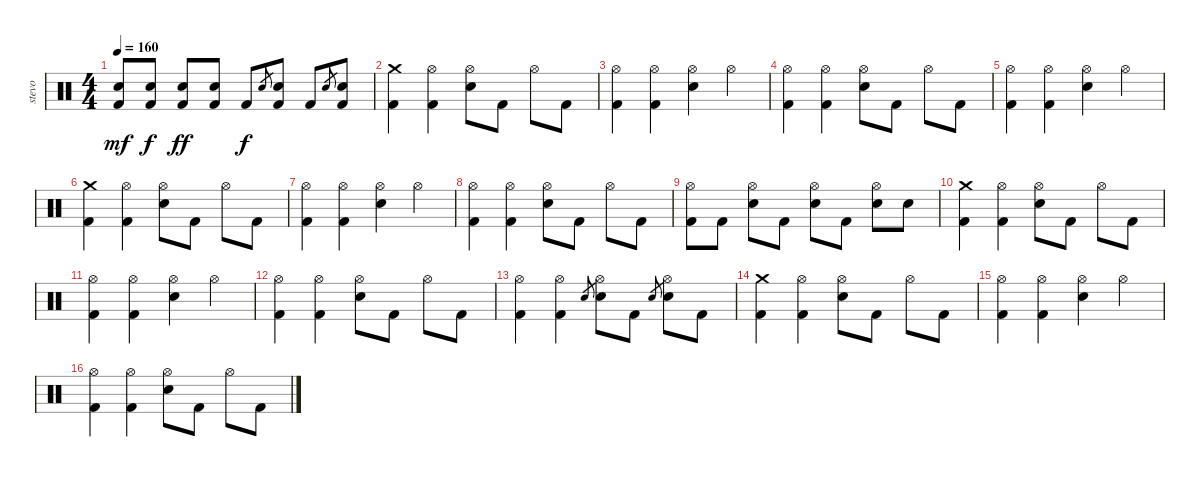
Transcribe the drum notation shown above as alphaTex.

\track ("stevo" "stevo") {instrument percussion}
\staff {score}
\articulation defaults
\ts (4 4)
\tempo 160
\clef neutral
\ks c
("Electric Snare (hit)" "Kick (hit) 2").8{dy mf} ("Electric Snare (hit)" "Kick (hit) 2").8{dy f} ("Electric Snare (hit)" "Kick (hit) 2").8{dy ff} ("Electric Snare (hit)" "Kick (hit) 2").8 "Kick (hit) 2".8{dy f} "Electric Snare (hit)".8{gr} ("Electric Snare (hit)" "Kick (hit) 2").8 "Kick (hit) 2".8 "Electric Snare (hit)".8{gr} ("Electric Snare (hit)" "Kick (hit) 2").8 |
("Crash medium (hit)" "Kick (hit) 2").4 ("Hi-Hat (open)" "Kick (hit) 2").4 ("Electric Snare (hit)" "Hi-Hat (open)").8 "Kick (hit) 2".8 "Hi-Hat (open)".8 "Kick (hit) 2".8 |
("Hi-Hat (open)" "Kick (hit) 2").4 ("Hi-Hat (open)" "Kick (hit) 2").4 ("Electric Snare (hit)" "Hi-Hat (open)").4 "Hi-Hat (open)".4 |
("Hi-Hat (open)" "Kick (hit) 2").4 ("Hi-Hat (open)" "Kick (hit) 2").4 ("Electric Snare (hit)" "Hi-Hat (open)").8 "Kick (hit) 2".8 "Hi-Hat (open)".8 "Kick (hit) 2".8 |
("Hi-Hat (open)" "Kick (hit) 2").4 ("Hi-Hat (open)" "Kick (hit) 2").4 ("Electric Snare (hit)" "Hi-Hat (open)").4 "Hi-Hat (open)".4 |
("Crash medium (hit)" "Kick (hit) 2").4 ("Hi-Hat (open)" "Kick (hit) 2").4 ("Electric Snare (hit)" "Hi-Hat (open)").8 "Kick (hit) 2".8 "Hi-Hat (open)".8 "Kick (hit) 2".8 |
("Hi-Hat (open)" "Kick (hit) 2").4 ("Hi-Hat (open)" "Kick (hit) 2").4 ("Electric Snare (hit)" "Hi-Hat (open)").4 "Hi-Hat (open)".4 |
("Hi-Hat (open)" "Kick (hit) 2").4 ("Hi-Hat (open)" "Kick (hit) 2").4 ("Electric Snare (hit)" "Hi-Hat (open)").8 "Kick (hit) 2".8 "Hi-Hat (open)".8 "Kick (hit) 2".8 |
("Hi-Hat (open)" "Kick (hit) 2").8 "Kick (hit) 2".8 ("Hi-Hat (open)" "Electric Snare (hit)").8 "Kick (hit) 2".8 ("Hi-Hat (open)" "Electric Snare (hit)").8 "Kick (hit) 2".8 ("Hi-Hat (open)" "Electric Snare (hit)").8 "Electric Snare (hit)".8 |
("Crash medium (hit)" "Kick (hit) 2").4 ("Hi-Hat (open)" "Kick (hit) 2").4 ("Electric Snare (hit)" "Hi-Hat (open)").8 "Kick (hit) 2".8 "Hi-Hat (open)".8 "Kick (hit) 2".8 |
("Hi-Hat (open)" "Kick (hit) 2").4 ("Hi-Hat (open)" "Kick (hit) 2").4 ("Electric Snare (hit)" "Hi-Hat (open)").4 "Hi-Hat (open)".4 |
("Hi-Hat (open)" "Kick (hit) 2").4 ("Hi-Hat (open)" "Kick (hit) 2").4 ("Electric Snare (hit)" "Hi-Hat (open)").8 "Kick (hit) 2".8 "Hi-Hat (open)".8 "Kick (hit) 2".8 |
("Hi-Hat (open)" "Kick (hit) 2").4 ("Hi-Hat (open)" "Kick (hit) 2").4 "Electric Snare (hit)".8{gr} ("Electric Snare (hit)" "Hi-Hat (open)").8 "Kick (hit) 2".8 "Electric Snare (hit)".8{gr} ("Hi-Hat (open)" "Electric Snare (hit)").8 "Kick (hit) 2".8 |
("Crash medium (hit)" "Kick (hit) 2").4 ("Hi-Hat (open)" "Kick (hit) 2").4 ("Electric Snare (hit)" "Hi-Hat (open)").8 "Kick (hit) 2".8 "Hi-Hat (open)".8 "Kick (hit) 2".8 |
("Hi-Hat (open)" "Kick (hit) 2").4 ("Hi-Hat (open)" "Kick (hit) 2").4 ("Electric Snare (hit)" "Hi-Hat (open)").4 "Hi-Hat (open)".4 |
("Hi-Hat (open)" "Kick (hit) 2").4 ("Hi-Hat (open)" "Kick (hit) 2").4 ("Electric Snare (hit)" "Hi-Hat (open)").8 "Kick (hit) 2".8 "Hi-Hat (open)".8 "Kick (hit) 2".8
